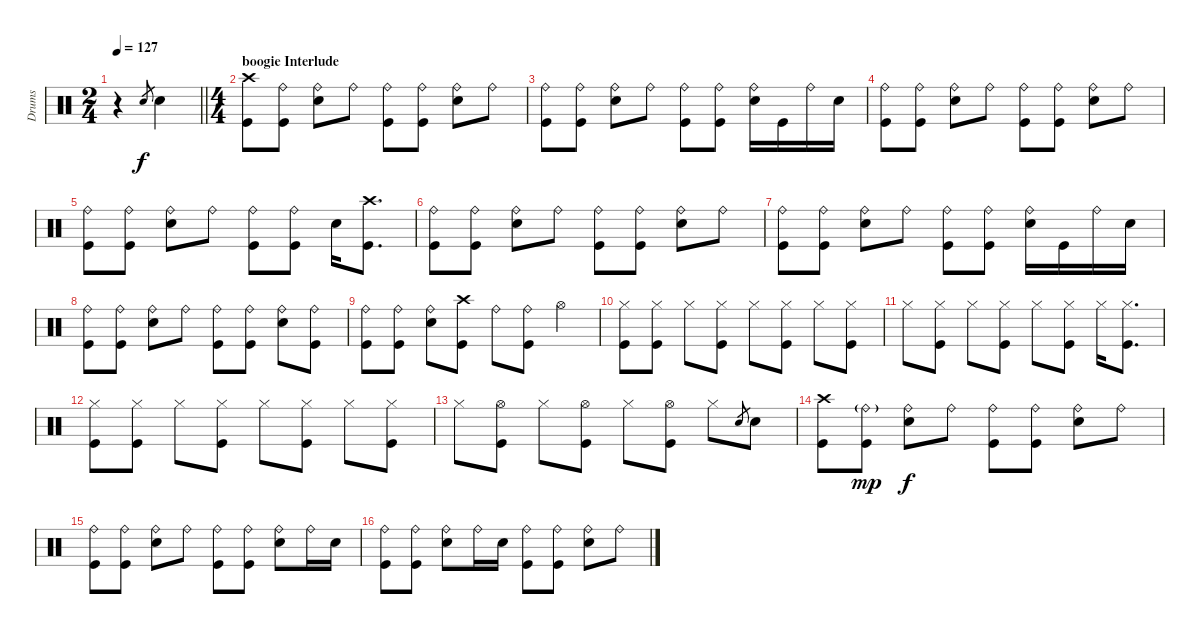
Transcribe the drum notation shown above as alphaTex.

\track ("Drums" "Drums") {instrument percussion}
\staff {score}
\articulation defaults
\ts (2 4)
\tempo 127
\clef neutral
\barLineRight lightlight
\ks c
r.4{dy mp} "Snare (hit) 2".8{gr dy f} "Snare (hit) 2".4 |
\ts (4 4)
\section ("" "boogie Interlude")
("Crash high (hit)" "Kick (hit)").8 ("Ride (bell)" "Kick (hit)").8 ("Ride (bell)" "Snare (hit) 2").8 "Ride (bell)".8 ("Ride (bell)" "Kick (hit)").8 ("Ride (bell)" "Kick (hit)").8 ("Ride (bell)" "Snare (hit) 2").8 "Ride (bell)".8 |
("Kick (hit)" "Ride (bell)").8 ("Kick (hit)" "Ride (bell)").8 ("Snare (hit) 2" "Ride (bell)").8 "Ride (bell)".8 ("Kick (hit)" "Ride (bell)").8 ("Kick (hit)" "Ride (bell)").8 ("Snare (hit) 2" "Ride (bell)").16 "Kick (hit)".16 "Ride (bell)".16 "Snare (hit) 2".16 |
("Ride (bell)" "Kick (hit)").8 ("Ride (bell)" "Kick (hit)").8 ("Ride (bell)" "Snare (hit) 2").8 "Ride (bell)".8 ("Ride (bell)" "Kick (hit)").8 ("Ride (bell)" "Kick (hit)").8 ("Ride (bell)" "Snare (hit) 2").8 "Ride (bell)".8 |
("Kick (hit)" "Ride (bell)").8 ("Kick (hit)" "Ride (bell)").8 ("Snare (hit) 2" "Ride (bell)").8 "Ride (bell)".8 ("Kick (hit)" "Ride (bell)").8 ("Kick (hit)" "Ride (bell)").8 "Snare (hit) 2".16 ("Crash high (hit)" "Kick (hit)").8{d} |
("Ride (bell)" "Kick (hit)").8 ("Ride (bell)" "Kick (hit)").8 ("Ride (bell)" "Snare (hit) 2").8 "Ride (bell)".8 ("Ride (bell)" "Kick (hit)").8 ("Ride (bell)" "Kick (hit)").8 ("Ride (bell)" "Snare (hit) 2").8 "Ride (bell)".8 |
("Kick (hit)" "Ride (bell)").8 ("Kick (hit)" "Ride (bell)").8 ("Snare (hit) 2" "Ride (bell)").8 "Ride (bell)".8 ("Kick (hit)" "Ride (bell)").8 ("Kick (hit)" "Ride (bell)").8 ("Snare (hit) 2" "Ride (bell)").16 "Kick (hit)".16 "Ride (bell)".16 "Snare (hit) 2".16 |
("Ride (bell)" "Kick (hit)").8 ("Ride (bell)" "Kick (hit)").8 ("Ride (bell)" "Snare (hit) 2").8 "Ride (bell)".8 ("Ride (bell)" "Kick (hit)").8 ("Ride (bell)" "Kick (hit)").8 ("Ride (bell)" "Snare (hit) 2").8 ("Ride (bell)" "Kick (hit)").8 |
("Ride (bell)" "Kick (hit)").8 ("Kick (hit)" "Ride (bell)").8 ("Ride (bell)" "Snare (hit) 2").8 ("Kick (hit)" "Crash high (hit)").8 "Ride (bell)".8 ("Ride (bell)" "Kick (hit)").8 "Hi-Hat (open)".4 |
("Hi-Hat (closed)" "Kick (hit)").8 ("Hi-Hat (closed)" "Kick (hit)").8 "Hi-Hat (closed)".8 ("Hi-Hat (closed)" "Kick (hit)").8 "Hi-Hat (closed)".8 ("Hi-Hat (closed)" "Kick (hit)").8 "Hi-Hat (closed)".8 ("Hi-Hat (closed)" "Kick (hit)").8 |
"Hi-Hat (closed)".8 ("Kick (hit)" "Hi-Hat (closed)").8 "Hi-Hat (closed)".8 ("Kick (hit)" "Hi-Hat (closed)").8 "Hi-Hat (closed)".8 ("Kick (hit)" "Hi-Hat (closed)").8 "Hi-Hat (closed)".16 ("Kick (hit)" "Hi-Hat (closed)").8{d} |
("Hi-Hat (closed)" "Kick (hit)").8 ("Hi-Hat (closed)" "Kick (hit)").8 "Hi-Hat (closed)".8 ("Hi-Hat (closed)" "Kick (hit)").8 "Hi-Hat (closed)".8 ("Hi-Hat (closed)" "Kick (hit)").8 "Hi-Hat (closed)".8 ("Hi-Hat (closed)" "Kick (hit)").8 |
"Hi-Hat (closed)".8 ("Kick (hit)" "Hi-Hat (open)").8 "Hi-Hat (closed)".8 ("Kick (hit)" "Hi-Hat (open)").8 "Hi-Hat (closed)".8 ("Kick (hit)" "Hi-Hat (open)").8 "Hi-Hat (closed)".8 "Snare (hit) 2".8{gr} "Snare (hit) 2".8 |
("Crash high (hit)" "Kick (hit)").8 ("Ride (bell)"{g} "Kick (hit)").8{dy mp} ("Ride (bell)" "Snare (hit) 2").8{dy f} "Ride (bell)".8 ("Ride (bell)" "Kick (hit)").8 ("Ride (bell)" "Kick (hit)").8 ("Ride (bell)" "Snare (hit) 2").8 "Ride (bell)".8 |
("Kick (hit)" "Ride (bell)").8 ("Kick (hit)" "Ride (bell)").8 ("Snare (hit) 2" "Ride (bell)").8 "Ride (bell)".8 ("Kick (hit)" "Ride (bell)").8 ("Kick (hit)" "Ride (bell)").8 ("Snare (hit) 2" "Ride (bell)").8 "Ride (bell)".16 "Snare (hit) 2".16 |
("Kick (hit)" "Ride (bell)").8 ("Kick (hit)" "Ride (bell)").8 ("Snare (hit) 2" "Ride (bell)").8 "Ride (bell)".16 "Snare (hit) 2".16 ("Kick (hit)" "Ride (bell)").8 ("Kick (hit)" "Ride (bell)").8 ("Snare (hit) 2" "Ride (bell)").8 "Ride (bell)".8
